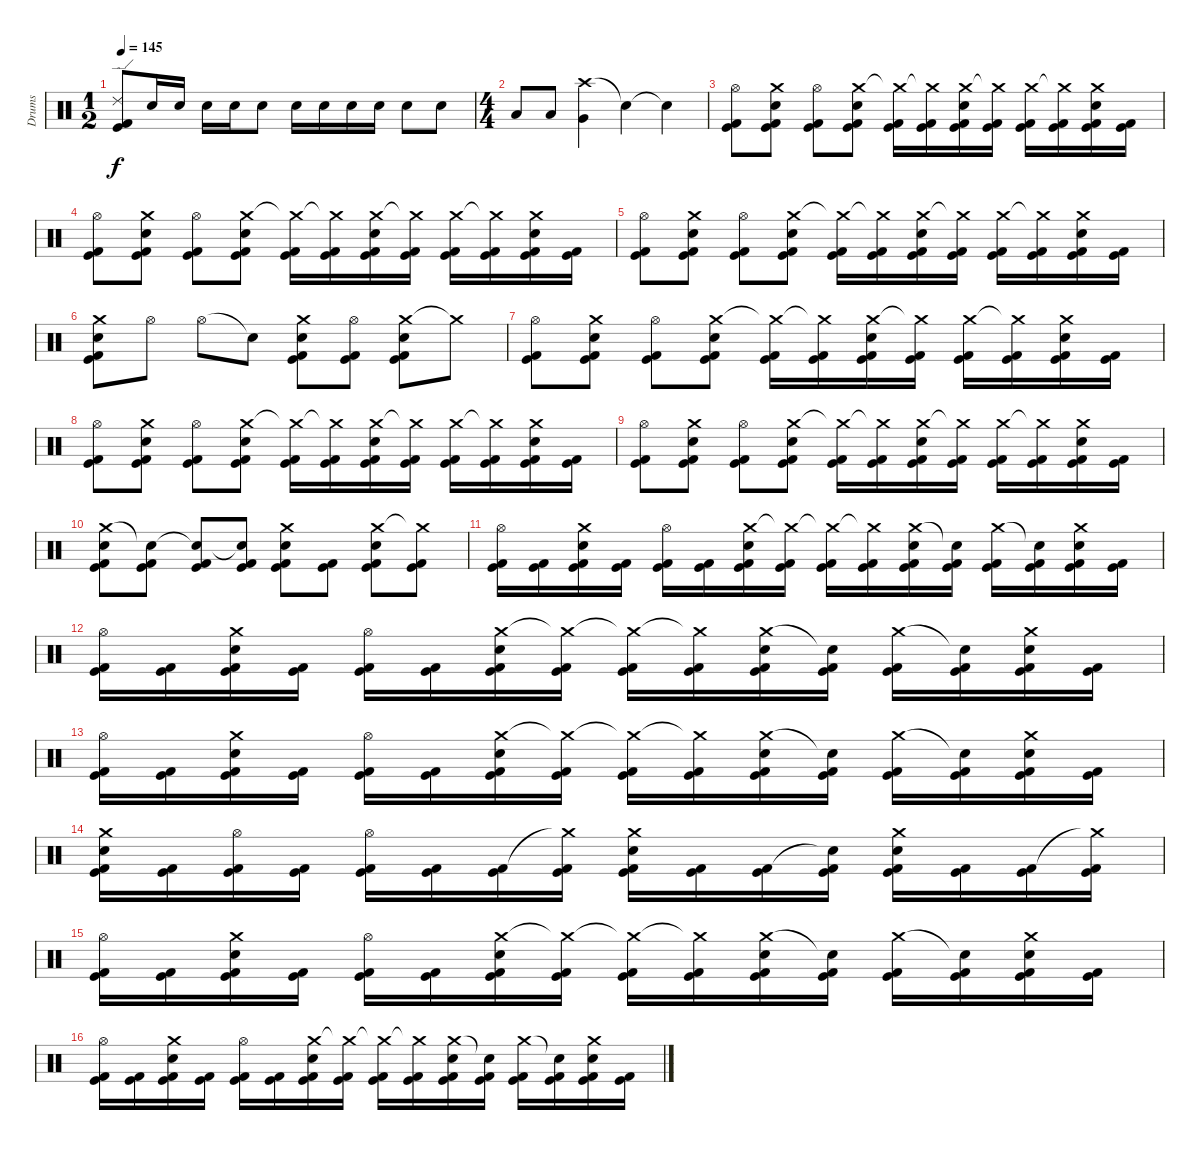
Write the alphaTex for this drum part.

\track ("Drums" "Drums") {instrument percussion}
\staff {score}
\articulation defaults
\ts (1 2)
\tempo 145
\clef neutral
\ks c
("Ride (edge) 2" "Kick (hit) 2" "Kick (hit)").8{dy f} "Snare (hit) 2".16 "Snare (hit) 2".16 "Snare (hit) 2".16 "Snare (hit) 2".16 "Snare (hit) 2".8 "Snare (hit) 2".16 "Snare (hit) 2".16 "Snare (hit) 2".16 "Snare (hit) 2".16 "Snare (hit) 2".8 "Snare (hit) 2".8 |
\ts (4 4)
"Low Tom (hit)".8 "Low Tom (hit)".8 ("Crash high (hit)" "Very Low Tom (hit)").4 "Snare (hit)"{t}.4 "Snare (hit)"{t}.4 |
("Hi-Hat (open)" "Kick (hit) 2" "Kick (hit)").8 ("Crash medium (hit)" "Snare (hit) 2" "Kick (hit) 2" "Kick (hit)").8 ("Hi-Hat (open)" "Kick (hit) 2" "Kick (hit)").8 ("Crash medium (hit)" "Snare (hit) 2" "Kick (hit) 2" "Kick (hit)").8 ("Crash medium (hit)"{t} "Kick (hit) 2" "Kick (hit)").16 ("Crash medium (hit)"{t} "Kick (hit) 2" "Kick (hit)").16 ("Crash medium (hit)" "Snare (hit) 2" "Kick (hit) 2" "Kick (hit)").16 ("Crash medium (hit)"{t} "Kick (hit) 2" "Kick (hit)").16 ("Crash medium (hit)" "Kick (hit) 2" "Kick (hit)").16 ("Crash medium (hit)"{t} "Kick (hit) 2" "Kick (hit)").16 ("Crash medium (hit)" "Snare (hit) 2" "Kick (hit) 2" "Kick (hit)").16 ("Kick (hit) 2" "Kick (hit)").16 |
("Hi-Hat (open)" "Kick (hit) 2" "Kick (hit)").8 ("Crash medium (hit)" "Snare (hit) 2" "Kick (hit) 2" "Kick (hit)").8 ("Hi-Hat (open)" "Kick (hit) 2" "Kick (hit)").8 ("Crash medium (hit)" "Snare (hit) 2" "Kick (hit) 2" "Kick (hit)").8 ("Crash medium (hit)"{t} "Kick (hit) 2" "Kick (hit)").16 ("Crash medium (hit)"{t} "Kick (hit) 2" "Kick (hit)").16 ("Crash medium (hit)" "Snare (hit) 2" "Kick (hit) 2" "Kick (hit)").16 ("Crash medium (hit)"{t} "Kick (hit) 2" "Kick (hit)").16 ("Crash medium (hit)" "Kick (hit) 2" "Kick (hit)").16 ("Crash medium (hit)"{t} "Kick (hit) 2" "Kick (hit)").16 ("Crash medium (hit)" "Snare (hit) 2" "Kick (hit) 2" "Kick (hit)").16 ("Kick (hit) 2" "Kick (hit)").16 |
("Hi-Hat (open)" "Kick (hit) 2" "Kick (hit)").8 ("Crash medium (hit)" "Snare (hit) 2" "Kick (hit) 2" "Kick (hit)").8 ("Hi-Hat (open)" "Kick (hit) 2" "Kick (hit)").8 ("Crash medium (hit)" "Snare (hit) 2" "Kick (hit) 2" "Kick (hit)").8 ("Crash medium (hit)"{t} "Kick (hit) 2" "Kick (hit)").16 ("Crash medium (hit)"{t} "Kick (hit) 2" "Kick (hit)").16 ("Crash medium (hit)" "Snare (hit) 2" "Kick (hit) 2" "Kick (hit)").16 ("Crash medium (hit)"{t} "Kick (hit) 2" "Kick (hit)").16 ("Crash medium (hit)" "Kick (hit) 2" "Kick (hit)").16 ("Crash medium (hit)"{t} "Kick (hit) 2" "Kick (hit)").16 ("Crash medium (hit)" "Snare (hit) 2" "Kick (hit) 2" "Kick (hit)").16 ("Kick (hit) 2" "Kick (hit)").16 |
("Crash medium (hit)" "Snare (hit) 2" "Kick (hit) 2" "Kick (hit)").8 "Hi-Hat (open)".8 "Hi-Hat (open)".8 "Snare (hit)"{t}.8 ("Crash medium (hit)" "Snare (hit) 2" "Kick (hit) 2" "Kick (hit)").8 ("Hi-Hat (open)" "Kick (hit) 2" "Kick (hit)").8 ("Crash medium (hit)" "Snare (hit) 2" "Kick (hit) 2" "Kick (hit)").8 "Crash medium (hit)"{t}.8 |
("Hi-Hat (open)" "Kick (hit) 2" "Kick (hit)").8 ("Crash medium (hit)" "Snare (hit) 2" "Kick (hit) 2" "Kick (hit)").8 ("Hi-Hat (open)" "Kick (hit) 2" "Kick (hit)").8 ("Crash medium (hit)" "Snare (hit) 2" "Kick (hit) 2" "Kick (hit)").8 ("Crash medium (hit)"{t} "Kick (hit) 2" "Kick (hit)").16 ("Crash medium (hit)"{t} "Kick (hit) 2" "Kick (hit)").16 ("Crash medium (hit)" "Snare (hit) 2" "Kick (hit) 2" "Kick (hit)").16 ("Crash medium (hit)"{t} "Kick (hit) 2" "Kick (hit)").16 ("Crash medium (hit)" "Kick (hit) 2" "Kick (hit)").16 ("Crash medium (hit)"{t} "Kick (hit) 2" "Kick (hit)").16 ("Crash medium (hit)" "Snare (hit) 2" "Kick (hit) 2" "Kick (hit)").16 ("Kick (hit) 2" "Kick (hit)").16 |
("Hi-Hat (open)" "Kick (hit) 2" "Kick (hit)").8 ("Crash medium (hit)" "Snare (hit) 2" "Kick (hit) 2" "Kick (hit)").8 ("Hi-Hat (open)" "Kick (hit) 2" "Kick (hit)").8 ("Crash medium (hit)" "Snare (hit) 2" "Kick (hit) 2" "Kick (hit)").8 ("Crash medium (hit)"{t} "Kick (hit) 2" "Kick (hit)").16 ("Crash medium (hit)"{t} "Kick (hit) 2" "Kick (hit)").16 ("Crash medium (hit)" "Snare (hit) 2" "Kick (hit) 2" "Kick (hit)").16 ("Crash medium (hit)"{t} "Kick (hit) 2" "Kick (hit)").16 ("Crash medium (hit)" "Kick (hit) 2" "Kick (hit)").16 ("Crash medium (hit)"{t} "Kick (hit) 2" "Kick (hit)").16 ("Crash medium (hit)" "Snare (hit) 2" "Kick (hit) 2" "Kick (hit)").16 ("Kick (hit) 2" "Kick (hit)").16 |
("Hi-Hat (open)" "Kick (hit) 2" "Kick (hit)").8 ("Crash medium (hit)" "Snare (hit) 2" "Kick (hit) 2" "Kick (hit)").8 ("Hi-Hat (open)" "Kick (hit) 2" "Kick (hit)").8 ("Crash medium (hit)" "Snare (hit) 2" "Kick (hit) 2" "Kick (hit)").8 ("Crash medium (hit)"{t} "Kick (hit) 2" "Kick (hit)").16 ("Crash medium (hit)"{t} "Kick (hit) 2" "Kick (hit)").16 ("Crash medium (hit)" "Snare (hit) 2" "Kick (hit) 2" "Kick (hit)").16 ("Crash medium (hit)"{t} "Kick (hit) 2" "Kick (hit)").16 ("Crash medium (hit)" "Kick (hit) 2" "Kick (hit)").16 ("Crash medium (hit)"{t} "Kick (hit) 2" "Kick (hit)").16 ("Crash medium (hit)" "Snare (hit) 2" "Kick (hit) 2" "Kick (hit)").16 ("Kick (hit) 2" "Kick (hit)").16 |
("Crash medium (hit)" "Snare (hit) 2" "Kick (hit) 2" "Kick (hit)").8 ("Snare (hit)"{t} "Kick (hit) 2" "Kick (hit)").8 ("Snare (hit)"{t} "Kick (hit) 2" "Kick (hit)").8 ("Snare (hit)"{t} "Kick (hit) 2" "Kick (hit)").8 ("Crash medium (hit)" "Snare (hit) 2" "Kick (hit) 2" "Kick (hit)").8 ("Kick (hit) 2" "Kick (hit)").8 ("Crash medium (hit)" "Snare (hit) 2" "Kick (hit) 2" "Kick (hit)").8 ("Crash medium (hit)"{t} "Kick (hit) 2" "Kick (hit)").8 |
("Hi-Hat (open)" "Kick (hit) 2" "Kick (hit)").16 ("Kick (hit) 2" "Kick (hit)").16 ("Crash medium (hit)" "Snare (hit) 2" "Kick (hit) 2" "Kick (hit)").16 ("Kick (hit) 2" "Kick (hit)").16 ("Hi-Hat (open)" "Kick (hit) 2" "Kick (hit)").16 ("Kick (hit) 2" "Kick (hit)").16 ("Crash medium (hit)" "Snare (hit) 2" "Kick (hit) 2" "Kick (hit)").16 ("Crash medium (hit)"{t} "Kick (hit) 2" "Kick (hit)").16 ("Crash medium (hit)"{t} "Kick (hit) 2" "Kick (hit)").16 ("Crash medium (hit)"{t} "Kick (hit) 2" "Kick (hit)").16 ("Crash medium (hit)" "Snare (hit) 2" "Kick (hit) 2" "Kick (hit)").16 ("Snare (hit)"{t} "Kick (hit) 2" "Kick (hit)").16 ("Crash medium (hit)" "Kick (hit) 2" "Kick (hit)").16 ("Snare (hit)"{t} "Kick (hit) 2" "Kick (hit)").16 ("Crash medium (hit)" "Snare (hit) 2" "Kick (hit) 2" "Kick (hit)").16 ("Kick (hit) 2" "Kick (hit)").16 |
("Hi-Hat (open)" "Kick (hit) 2" "Kick (hit)").16 ("Kick (hit) 2" "Kick (hit)").16 ("Crash medium (hit)" "Snare (hit) 2" "Kick (hit) 2" "Kick (hit)").16 ("Kick (hit) 2" "Kick (hit)").16 ("Hi-Hat (open)" "Kick (hit) 2" "Kick (hit)").16 ("Kick (hit) 2" "Kick (hit)").16 ("Crash medium (hit)" "Snare (hit) 2" "Kick (hit) 2" "Kick (hit)").16 ("Crash medium (hit)"{t} "Kick (hit) 2" "Kick (hit)").16 ("Crash medium (hit)"{t} "Kick (hit) 2" "Kick (hit)").16 ("Crash medium (hit)"{t} "Kick (hit) 2" "Kick (hit)").16 ("Crash medium (hit)" "Snare (hit) 2" "Kick (hit) 2" "Kick (hit)").16 ("Snare (hit)"{t} "Kick (hit) 2" "Kick (hit)").16 ("Crash medium (hit)" "Kick (hit) 2" "Kick (hit)").16 ("Snare (hit)"{t} "Kick (hit) 2" "Kick (hit)").16 ("Crash medium (hit)" "Snare (hit) 2" "Kick (hit) 2" "Kick (hit)").16 ("Kick (hit) 2" "Kick (hit)").16 |
("Hi-Hat (open)" "Kick (hit) 2" "Kick (hit)").16 ("Kick (hit) 2" "Kick (hit)").16 ("Crash medium (hit)" "Snare (hit) 2" "Kick (hit) 2" "Kick (hit)").16 ("Kick (hit) 2" "Kick (hit)").16 ("Hi-Hat (open)" "Kick (hit) 2" "Kick (hit)").16 ("Kick (hit) 2" "Kick (hit)").16 ("Crash medium (hit)" "Snare (hit) 2" "Kick (hit) 2" "Kick (hit)").16 ("Crash medium (hit)"{t} "Kick (hit) 2" "Kick (hit)").16 ("Crash medium (hit)"{t} "Kick (hit) 2" "Kick (hit)").16 ("Crash medium (hit)"{t} "Kick (hit) 2" "Kick (hit)").16 ("Crash medium (hit)" "Snare (hit) 2" "Kick (hit) 2" "Kick (hit)").16 ("Snare (hit)"{t} "Kick (hit) 2" "Kick (hit)").16 ("Crash medium (hit)" "Kick (hit) 2" "Kick (hit)").16 ("Snare (hit)"{t} "Kick (hit) 2" "Kick (hit)").16 ("Crash medium (hit)" "Snare (hit) 2" "Kick (hit) 2" "Kick (hit)").16 ("Kick (hit) 2" "Kick (hit)").16 |
("Crash medium (hit)" "Snare (hit) 2" "Kick (hit) 2" "Kick (hit)").16 ("Kick (hit) 2" "Kick (hit)").16 ("Hi-Hat (open)" "Kick (hit) 2" "Kick (hit)").16 ("Kick (hit) 2" "Kick (hit)").16 ("Hi-Hat (open)" "Kick (hit) 2" "Kick (hit)").16 ("Kick (hit) 2" "Kick (hit)").16 ("Kick (hit) 2" "Kick (hit)").16 ("Crash medium (hit)"{t} "Kick (hit) 2" "Kick (hit)").16 ("Crash medium (hit)" "Snare (hit) 2" "Kick (hit) 2" "Kick (hit)").16 ("Kick (hit) 2" "Kick (hit)").16 ("Kick (hit) 2" "Kick (hit)").16 ("Snare (hit)"{t} "Kick (hit) 2" "Kick (hit)").16 ("Crash medium (hit)" "Snare (hit) 2" "Kick (hit) 2" "Kick (hit)").16 ("Kick (hit) 2" "Kick (hit)").16 ("Kick (hit) 2" "Kick (hit)").16 ("Crash medium (hit)"{t} "Kick (hit) 2" "Kick (hit)").16 |
("Hi-Hat (open)" "Kick (hit) 2" "Kick (hit)").16 ("Kick (hit) 2" "Kick (hit)").16 ("Crash medium (hit)" "Snare (hit) 2" "Kick (hit) 2" "Kick (hit)").16 ("Kick (hit) 2" "Kick (hit)").16 ("Hi-Hat (open)" "Kick (hit) 2" "Kick (hit)").16 ("Kick (hit) 2" "Kick (hit)").16 ("Crash medium (hit)" "Snare (hit) 2" "Kick (hit) 2" "Kick (hit)").16 ("Crash medium (hit)"{t} "Kick (hit) 2" "Kick (hit)").16 ("Crash medium (hit)"{t} "Kick (hit) 2" "Kick (hit)").16 ("Crash medium (hit)"{t} "Kick (hit) 2" "Kick (hit)").16 ("Crash medium (hit)" "Snare (hit) 2" "Kick (hit) 2" "Kick (hit)").16 ("Snare (hit)"{t} "Kick (hit) 2" "Kick (hit)").16 ("Crash medium (hit)" "Kick (hit) 2" "Kick (hit)").16 ("Snare (hit)"{t} "Kick (hit) 2" "Kick (hit)").16 ("Crash medium (hit)" "Snare (hit) 2" "Kick (hit) 2" "Kick (hit)").16 ("Kick (hit) 2" "Kick (hit)").16 |
("Hi-Hat (open)" "Kick (hit) 2" "Kick (hit)").16 ("Kick (hit) 2" "Kick (hit)").16 ("Crash medium (hit)" "Snare (hit) 2" "Kick (hit) 2" "Kick (hit)").16 ("Kick (hit) 2" "Kick (hit)").16 ("Hi-Hat (open)" "Kick (hit) 2" "Kick (hit)").16 ("Kick (hit) 2" "Kick (hit)").16 ("Crash medium (hit)" "Snare (hit) 2" "Kick (hit) 2" "Kick (hit)").16 ("Crash medium (hit)"{t} "Kick (hit) 2" "Kick (hit)").16 ("Crash medium (hit)"{t} "Kick (hit) 2" "Kick (hit)").16 ("Crash medium (hit)"{t} "Kick (hit) 2" "Kick (hit)").16 ("Crash medium (hit)" "Snare (hit) 2" "Kick (hit) 2" "Kick (hit)").16 ("Snare (hit)"{t} "Kick (hit) 2" "Kick (hit)").16 ("Crash medium (hit)" "Kick (hit) 2" "Kick (hit)").16 ("Snare (hit)"{t} "Kick (hit) 2" "Kick (hit)").16 ("Crash medium (hit)" "Snare (hit) 2" "Kick (hit) 2" "Kick (hit)").16 ("Kick (hit) 2" "Kick (hit)").16
